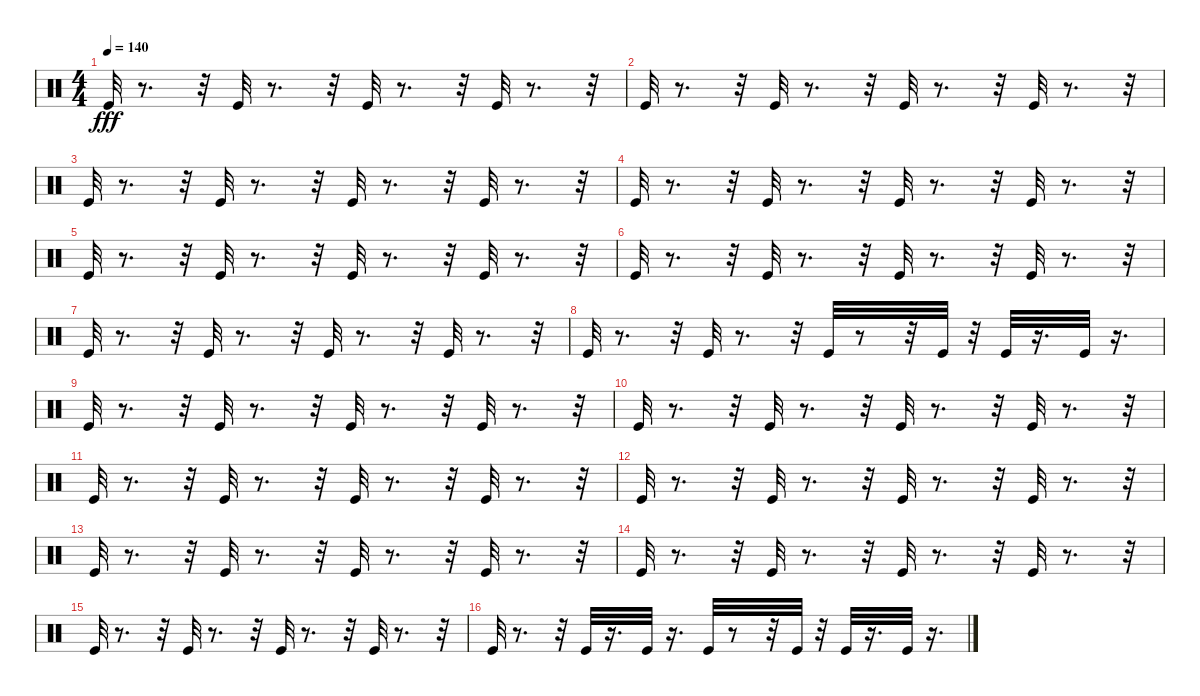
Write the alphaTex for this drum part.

\track "" {instrument percussion}
\staff {score}
\articulation defaults
\ts (4 4)
\tempo 140
\clef neutral
\ks c "Kick (hit)".32{dy fff}
r.8{d} r.32 "Kick (hit)".32 r.8{d} r.32 "Kick (hit)".32 r.8{d} r.32 "Kick (hit)".32 r.8{d} r.32 |
"Kick (hit)".32 r.8{d} r.32 "Kick (hit)".32 r.8{d} r.32 "Kick (hit)".32 r.8{d} r.32 "Kick (hit)".32 r.8{d} r.32 |
"Kick (hit)".32 r.8{d} r.32 "Kick (hit)".32 r.8{d} r.32 "Kick (hit)".32 r.8{d} r.32 "Kick (hit)".32 r.8{d} r.32 |
"Kick (hit)".32 r.8{d} r.32 "Kick (hit)".32 r.8{d} r.32 "Kick (hit)".32 r.8{d} r.32 "Kick (hit)".32 r.8{d} r.32 |
"Kick (hit)".32 r.8{d} r.32 "Kick (hit)".32 r.8{d} r.32 "Kick (hit)".32 r.8{d} r.32 "Kick (hit)".32 r.8{d} r.32 |
"Kick (hit)".32 r.8{d} r.32 "Kick (hit)".32 r.8{d} r.32 "Kick (hit)".32 r.8{d} r.32 "Kick (hit)".32 r.8{d} r.32 |
"Kick (hit)".32 r.8{d} r.32 "Kick (hit)".32 r.8{d} r.32 "Kick (hit)".32 r.8{d} r.32 "Kick (hit)".32 r.8{d} r.32 |
"Kick (hit)".32 r.8{d} r.32 "Kick (hit)".32 r.8{d} r.32 "Kick (hit)".32 r.8 r.32 "Kick (hit)".32 r.32 "Kick (hit)".32 r.16{d} "Kick (hit)".32 r.16{d} |
"Kick (hit)".32 r.8{d} r.32 "Kick (hit)".32 r.8{d} r.32 "Kick (hit)".32 r.8{d} r.32 "Kick (hit)".32 r.8{d} r.32 |
"Kick (hit)".32 r.8{d} r.32 "Kick (hit)".32 r.8{d} r.32 "Kick (hit)".32 r.8{d} r.32 "Kick (hit)".32 r.8{d} r.32 |
"Kick (hit)".32 r.8{d} r.32 "Kick (hit)".32 r.8{d} r.32 "Kick (hit)".32 r.8{d} r.32 "Kick (hit)".32 r.8{d} r.32 |
"Kick (hit)".32 r.8{d} r.32 "Kick (hit)".32 r.8{d} r.32 "Kick (hit)".32 r.8{d} r.32 "Kick (hit)".32 r.8{d} r.32 |
"Kick (hit)".32 r.8{d} r.32 "Kick (hit)".32 r.8{d} r.32 "Kick (hit)".32 r.8{d} r.32 "Kick (hit)".32 r.8{d} r.32 |
"Kick (hit)".32 r.8{d} r.32 "Kick (hit)".32 r.8{d} r.32 "Kick (hit)".32 r.8{d} r.32 "Kick (hit)".32 r.8{d} r.32 |
"Kick (hit)".32 r.8{d} r.32 "Kick (hit)".32 r.8{d} r.32 "Kick (hit)".32 r.8{d} r.32 "Kick (hit)".32 r.8{d} r.32 |
"Kick (hit)".32 r.8{d} r.32 "Kick (hit)".32 r.16{d} "Kick (hit)".32 r.16{d} "Kick (hit)".32 r.8 r.32 "Kick (hit)".32 r.32 "Kick (hit)".32 r.16{d} "Kick (hit)".32 r.16{d}
